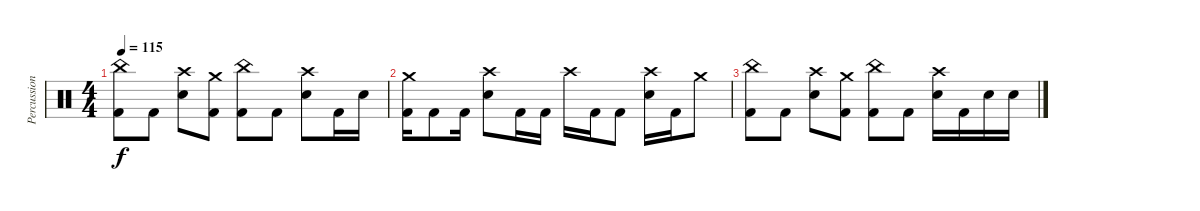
\track ("Percussions" "Percussion") {instrument percussion}
\staff {score}
\articulation defaults
\ts (4 4)
\tempo 115
\clef neutral
\ks c
("China (hit)" "Kick (hit) 2").8{dy f} "Kick (hit) 2".8 ("Crash high (hit)" "Electric Snare (hit)").8 ("Crash medium (hit)" "Kick (hit) 2").8 ("China (hit)" "Kick (hit) 2").8 "Kick (hit) 2".8 ("Crash high (hit)" "Electric Snare (hit)").8 "Kick (hit) 2".16 "Electric Snare (hit)".16 |
("Crash medium (hit)" "Kick (hit) 2").16 "Kick (hit) 2".8 "Kick (hit) 2".16 ("Crash high (hit)" "Electric Snare (hit)").8 "Kick (hit) 2".16 "Kick (hit) 2".16 "Crash high (hit)".16 "Kick (hit) 2".16 "Kick (hit) 2".8 ("Crash high (hit)" "Electric Snare (hit)").16 "Kick (hit) 2".16 "Crash medium (hit)".8 |
("China (hit)" "Kick (hit) 2").8 "Kick (hit) 2".8 ("Crash high (hit)" "Electric Snare (hit)").8 ("Crash medium (hit)" "Kick (hit) 2").8 ("China (hit)" "Kick (hit) 2").8 "Kick (hit) 2".8 ("Crash high (hit)" "Electric Snare (hit)").16 "Kick (hit) 2".16 "Electric Snare (hit)".16 "Electric Snare (hit)".16
